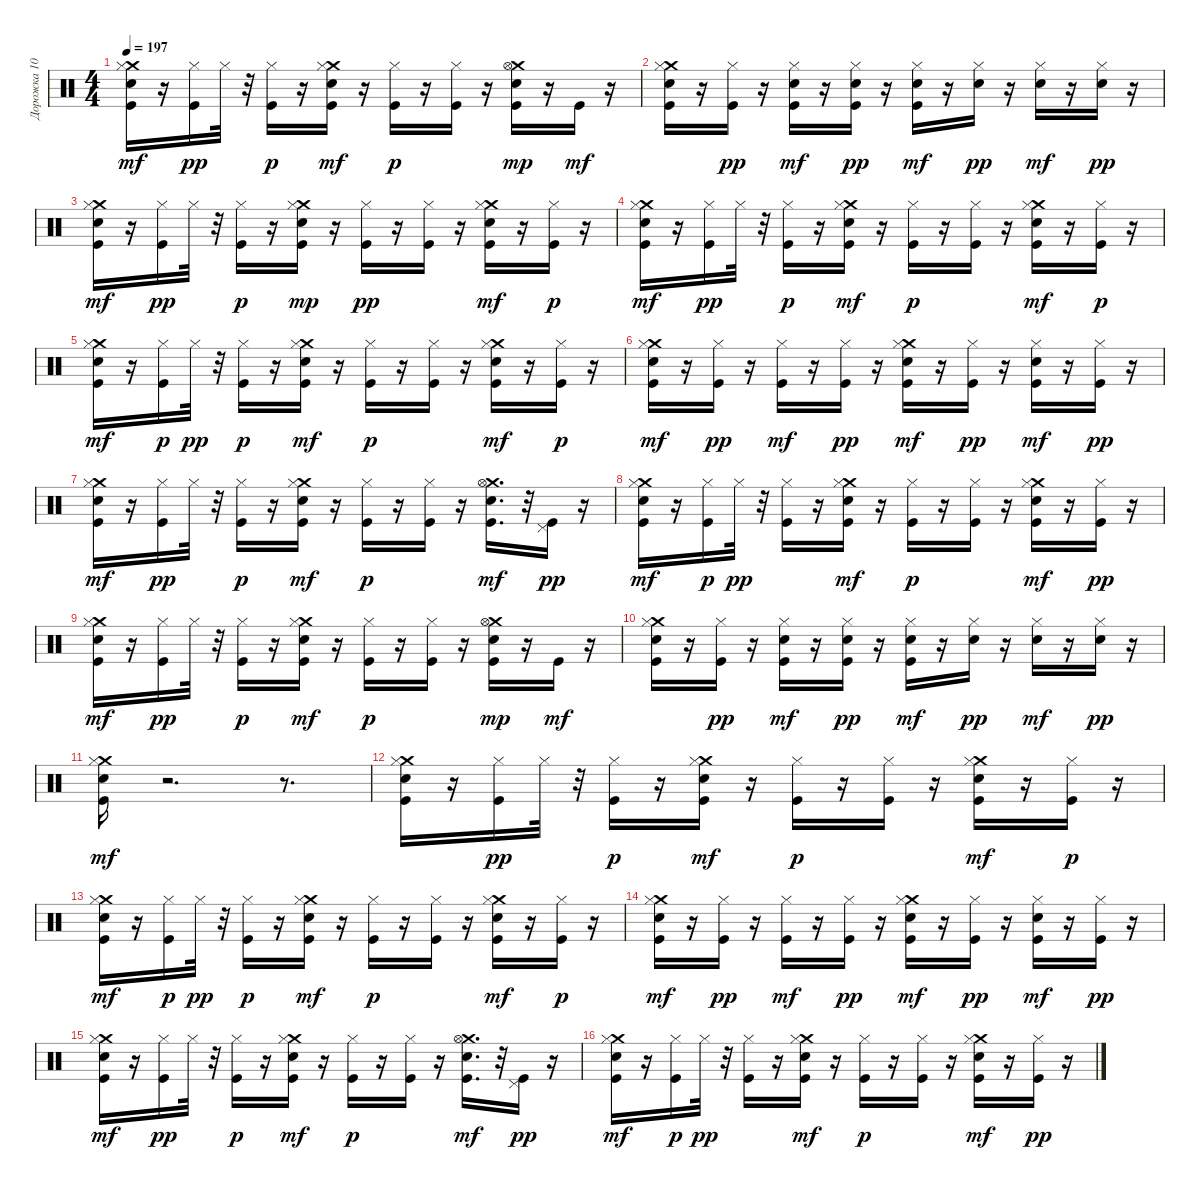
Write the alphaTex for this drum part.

\track ("Дорожка 10" "Дорожка 10") {instrument percussion}
\staff {score}
\articulation defaults
\ts (4 4)
\tempo 197
\clef neutral
\ks c
("Crash medium (hit)" "Snare (hit) 2" "Kick (hit)" "Hi-Hat (closed)").16{dy mf} r.16 ("Kick (hit)" "Hi-Hat (closed)").16{dy pp} "Hi-Hat (closed)".32 r.32 ("Kick (hit)" "Hi-Hat (closed)").16{dy p} r.16 ("Snare (hit) 2" "Crash medium (hit)" "Kick (hit)" "Hi-Hat (closed)").16{dy mf} r.16 ("Kick (hit)" "Hi-Hat (closed)").16{dy p} r.16 ("Kick (hit)" "Hi-Hat (closed)").16 r.16 ("Crash medium (hit)" "Snare (hit) 2" "Kick (hit)" "Hi-Hat (open)").16{dy mp} r.16 "Kick (hit)".16{dy mf} r.16 |
("Crash medium (hit)" "Snare (hit) 2" "Kick (hit)" "Hi-Hat (closed)").16 r.16 ("Kick (hit)" "Hi-Hat (closed)").16{dy pp} r.16 ("Snare (hit) 2" "Kick (hit)" "Hi-Hat (closed)").16{dy mf} r.16 ("Snare (hit) 2" "Kick (hit)" "Hi-Hat (closed)").16{dy pp} r.16 ("Snare (hit) 2" "Kick (hit)" "Hi-Hat (closed)").16{dy mf} r.16 ("Snare (hit) 2" "Hi-Hat (closed)").16{dy pp} r.16 ("Snare (hit) 2" "Hi-Hat (closed)").16{dy mf} r.16 ("Snare (hit) 2" "Hi-Hat (closed)").16{dy pp} r.16 |
("Snare (hit) 2" "Crash medium (hit)" "Kick (hit)" "Hi-Hat (closed)").16{dy mf} r.16 ("Kick (hit)" "Hi-Hat (closed)").16{dy pp} "Hi-Hat (closed)".32 r.32 ("Kick (hit)" "Hi-Hat (closed)").16{dy p} r.16 ("Crash medium (hit)" "Snare (hit) 2" "Kick (hit)" "Hi-Hat (closed)").16{dy mp} r.16 ("Kick (hit)" "Hi-Hat (closed)").16{dy pp} r.16 ("Kick (hit)" "Hi-Hat (closed)").16 r.16 ("Crash medium (hit)" "Snare (hit) 2" "Kick (hit)" "Hi-Hat (closed)").16{dy mf} r.16 ("Kick (hit)" "Hi-Hat (closed)").16{dy p} r.16 |
("Crash medium (hit)" "Snare (hit) 2" "Kick (hit)" "Hi-Hat (closed)").16{dy mf} r.16 ("Kick (hit)" "Hi-Hat (closed)").16{dy pp} "Hi-Hat (closed)".32 r.32 ("Kick (hit)" "Hi-Hat (closed)").16{dy p} r.16 ("Crash medium (hit)" "Snare (hit) 2" "Kick (hit)" "Hi-Hat (closed)").16{dy mf} r.16 ("Kick (hit)" "Hi-Hat (closed)").16{dy p} r.16 ("Kick (hit)" "Hi-Hat (closed)").16 r.16 ("Crash medium (hit)" "Snare (hit) 2" "Kick (hit)" "Hi-Hat (closed)").16{dy mf} r.16 ("Kick (hit)" "Hi-Hat (closed)").16{dy p} r.16 |
("Crash medium (hit)" "Snare (hit) 2" "Kick (hit)" "Hi-Hat (closed)").16{dy mf} r.16 ("Kick (hit)" "Hi-Hat (closed)").16{dy p} "Hi-Hat (closed)".32{dy pp} r.32 ("Kick (hit)" "Hi-Hat (closed)").16{dy p} r.16 ("Crash medium (hit)" "Snare (hit) 2" "Kick (hit)" "Hi-Hat (closed)").16{dy mf} r.16 ("Kick (hit)" "Hi-Hat (closed)").16{dy p} r.16 ("Kick (hit)" "Hi-Hat (closed)").16 r.16 ("Crash medium (hit)" "Snare (hit) 2" "Kick (hit)" "Hi-Hat (closed)").16{dy mf} r.16 ("Kick (hit)" "Hi-Hat (closed)").16{dy p} r.16 |
("Crash medium (hit)" "Snare (hit) 2" "Kick (hit)" "Hi-Hat (closed)").16{dy mf} r.16 ("Kick (hit)" "Hi-Hat (closed)").16{dy pp} r.16 ("Kick (hit)" "Hi-Hat (closed)").16{dy mf} r.16 ("Kick (hit)" "Hi-Hat (closed)").16{dy pp} r.16 ("Snare (hit) 2" "Crash medium (hit)" "Kick (hit)" "Hi-Hat (closed)").16{dy mf} r.16 ("Kick (hit)" "Hi-Hat (closed)").16{dy pp} r.16 ("Snare (hit) 2" "Kick (hit)" "Hi-Hat (closed)").16{dy mf} r.16 ("Kick (hit)" "Hi-Hat (closed)").16{dy pp} r.16 |
("Crash medium (hit)" "Snare (hit) 2" "Kick (hit)" "Hi-Hat (closed)").16{dy mf} r.16 ("Kick (hit)" "Hi-Hat (closed)").16{dy pp} "Hi-Hat (closed)".32 r.32 ("Kick (hit)" "Hi-Hat (closed)").16{dy p} r.16 ("Snare (hit) 2" "Crash medium (hit)" "Kick (hit)" "Hi-Hat (closed)").16{dy mf} r.16 ("Kick (hit)" "Hi-Hat (closed)").16{dy p} r.16 ("Kick (hit)" "Hi-Hat (closed)").16 r.16 ("Crash medium (hit)" "Snare (hit) 2" "Kick (hit)" "Hi-Hat (open)").16{d dy mf} r.32 ("Kick (hit)" "Pedal Hi-Hat (hit)").16{dy pp} r.16 |
("Crash medium (hit)" "Snare (hit) 2" "Kick (hit)" "Hi-Hat (closed)").16{dy mf} r.16 ("Kick (hit)" "Hi-Hat (closed)").16{dy p} "Hi-Hat (closed)".32{dy pp} r.32 ("Kick (hit)" "Hi-Hat (closed)").16 r.16 ("Snare (hit) 2" "Crash medium (hit)" "Kick (hit)" "Hi-Hat (closed)").16{dy mf} r.16 ("Kick (hit)" "Hi-Hat (closed)").16{dy p} r.16 ("Kick (hit)" "Hi-Hat (closed)").16 r.16 ("Crash medium (hit)" "Snare (hit) 2" "Kick (hit)" "Hi-Hat (closed)").16{dy mf} r.16 ("Kick (hit)" "Hi-Hat (closed)").16{dy pp} r.16 |
("Crash medium (hit)" "Snare (hit) 2" "Kick (hit)" "Hi-Hat (closed)").16{dy mf} r.16 ("Kick (hit)" "Hi-Hat (closed)").16{dy pp} "Hi-Hat (closed)".32 r.32 ("Kick (hit)" "Hi-Hat (closed)").16{dy p} r.16 ("Snare (hit) 2" "Crash medium (hit)" "Kick (hit)" "Hi-Hat (closed)").16{dy mf} r.16 ("Kick (hit)" "Hi-Hat (closed)").16{dy p} r.16 ("Kick (hit)" "Hi-Hat (closed)").16 r.16 ("Crash medium (hit)" "Snare (hit) 2" "Kick (hit)" "Hi-Hat (open)").16{dy mp} r.16 "Kick (hit)".16{dy mf} r.16 |
("Crash medium (hit)" "Snare (hit) 2" "Kick (hit)" "Hi-Hat (closed)").16 r.16 ("Kick (hit)" "Hi-Hat (closed)").16{dy pp} r.16 ("Snare (hit) 2" "Kick (hit)" "Hi-Hat (closed)").16{dy mf} r.16 ("Snare (hit) 2" "Kick (hit)" "Hi-Hat (closed)").16{dy pp} r.16 ("Snare (hit) 2" "Kick (hit)" "Hi-Hat (closed)").16{dy mf} r.16 ("Snare (hit) 2" "Hi-Hat (closed)").16{dy pp} r.16 ("Snare (hit) 2" "Hi-Hat (closed)").16{dy mf} r.16 ("Snare (hit) 2" "Hi-Hat (closed)").16{dy pp} r.16 |
("Snare (hit) 2" "Crash medium (hit)" "Kick (hit)" "Hi-Hat (closed)").16{dy mf} r.2{d} r.8{d} |
("Crash medium (hit)" "Snare (hit) 2" "Kick (hit)" "Hi-Hat (closed)").16 r.16 ("Kick (hit)" "Hi-Hat (closed)").16{dy pp} "Hi-Hat (closed)".32 r.32 ("Kick (hit)" "Hi-Hat (closed)").16{dy p} r.16 ("Crash medium (hit)" "Snare (hit) 2" "Kick (hit)" "Hi-Hat (closed)").16{dy mf} r.16 ("Kick (hit)" "Hi-Hat (closed)").16{dy p} r.16 ("Kick (hit)" "Hi-Hat (closed)").16 r.16 ("Crash medium (hit)" "Snare (hit) 2" "Kick (hit)" "Hi-Hat (closed)").16{dy mf} r.16 ("Kick (hit)" "Hi-Hat (closed)").16{dy p} r.16 |
("Crash medium (hit)" "Snare (hit) 2" "Kick (hit)" "Hi-Hat (closed)").16{dy mf} r.16 ("Kick (hit)" "Hi-Hat (closed)").16{dy p} "Hi-Hat (closed)".32{dy pp} r.32 ("Kick (hit)" "Hi-Hat (closed)").16{dy p} r.16 ("Crash medium (hit)" "Snare (hit) 2" "Kick (hit)" "Hi-Hat (closed)").16{dy mf} r.16 ("Kick (hit)" "Hi-Hat (closed)").16{dy p} r.16 ("Kick (hit)" "Hi-Hat (closed)").16 r.16 ("Crash medium (hit)" "Snare (hit) 2" "Kick (hit)" "Hi-Hat (closed)").16{dy mf} r.16 ("Kick (hit)" "Hi-Hat (closed)").16{dy p} r.16 |
("Crash medium (hit)" "Snare (hit) 2" "Kick (hit)" "Hi-Hat (closed)").16{dy mf} r.16 ("Kick (hit)" "Hi-Hat (closed)").16{dy pp} r.16 ("Kick (hit)" "Hi-Hat (closed)").16{dy mf} r.16 ("Kick (hit)" "Hi-Hat (closed)").16{dy pp} r.16 ("Snare (hit) 2" "Crash medium (hit)" "Kick (hit)" "Hi-Hat (closed)").16{dy mf} r.16 ("Kick (hit)" "Hi-Hat (closed)").16{dy pp} r.16 ("Snare (hit) 2" "Kick (hit)" "Hi-Hat (closed)").16{dy mf} r.16 ("Kick (hit)" "Hi-Hat (closed)").16{dy pp} r.16 |
("Crash medium (hit)" "Snare (hit) 2" "Kick (hit)" "Hi-Hat (closed)").16{dy mf} r.16 ("Kick (hit)" "Hi-Hat (closed)").16{dy pp} "Hi-Hat (closed)".32 r.32 ("Kick (hit)" "Hi-Hat (closed)").16{dy p} r.16 ("Snare (hit) 2" "Crash medium (hit)" "Kick (hit)" "Hi-Hat (closed)").16{dy mf} r.16 ("Kick (hit)" "Hi-Hat (closed)").16{dy p} r.16 ("Kick (hit)" "Hi-Hat (closed)").16 r.16 ("Crash medium (hit)" "Snare (hit) 2" "Kick (hit)" "Hi-Hat (open)").16{d dy mf} r.32 ("Kick (hit)" "Pedal Hi-Hat (hit)").16{dy pp} r.16 |
("Crash medium (hit)" "Snare (hit) 2" "Kick (hit)" "Hi-Hat (closed)").16{dy mf} r.16 ("Kick (hit)" "Hi-Hat (closed)").16{dy p} "Hi-Hat (closed)".32{dy pp} r.32 ("Kick (hit)" "Hi-Hat (closed)").16 r.16 ("Snare (hit) 2" "Crash medium (hit)" "Kick (hit)" "Hi-Hat (closed)").16{dy mf} r.16 ("Kick (hit)" "Hi-Hat (closed)").16{dy p} r.16 ("Kick (hit)" "Hi-Hat (closed)").16 r.16 ("Crash medium (hit)" "Snare (hit) 2" "Kick (hit)" "Hi-Hat (closed)").16{dy mf} r.16 ("Kick (hit)" "Hi-Hat (closed)").16{dy pp} r.16
